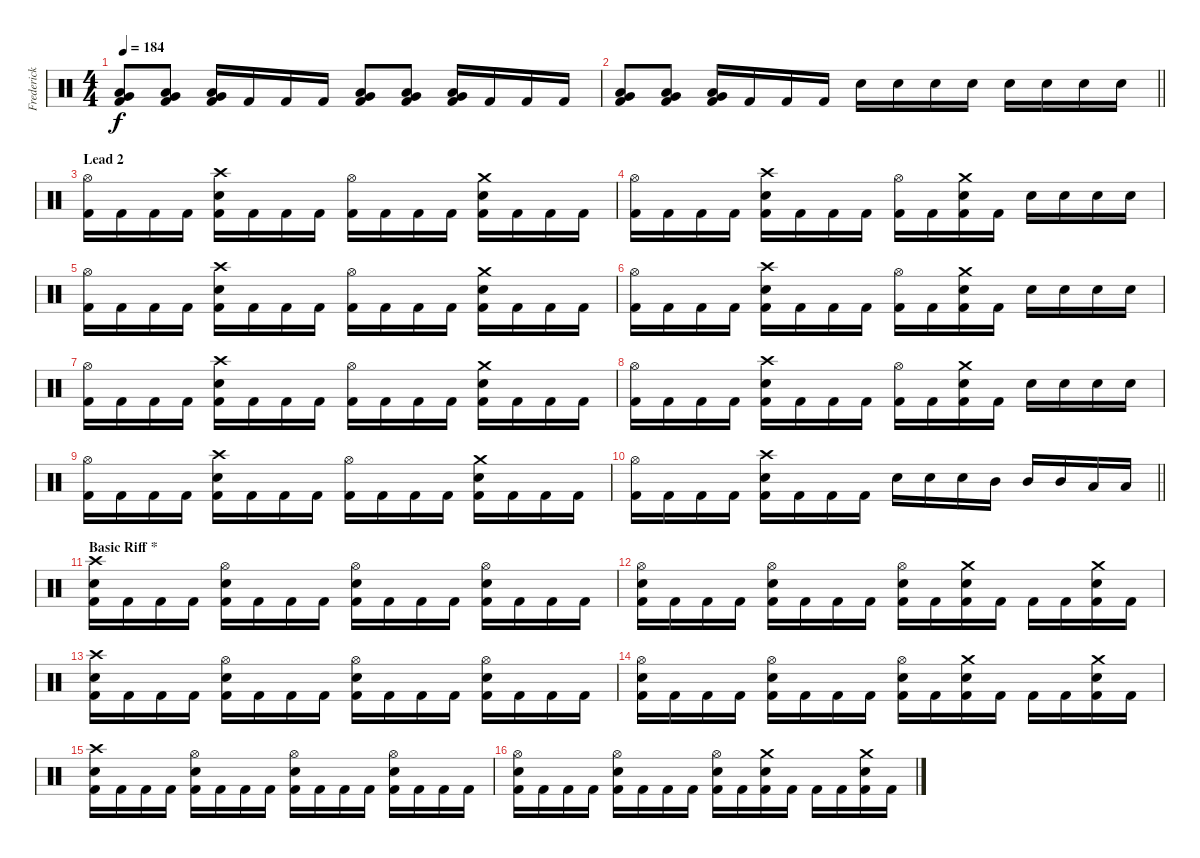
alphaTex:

\track ("Frederick Ehmke" "Frederick ") {instrument percussion}
\staff {score}
\articulation defaults
\ts (4 4)
\tempo 184
\clef neutral
\ks c
("Kick (hit) 2" "Low Tom (hit)" "Very Low Tom (hit)").8{dy f} ("Kick (hit) 2" "Low Tom (hit)" "Very Low Tom (hit)").8 ("Kick (hit) 2" "Low Floor Tom (hit)" "Very Low Tom (hit)").16 "Kick (hit) 2".16 "Kick (hit) 2".16 "Kick (hit) 2".16 ("Kick (hit) 2" "Low Tom (hit)" "Very Low Tom (hit)").8 ("Kick (hit) 2" "Low Tom (hit)" "Very Low Tom (hit)").8 ("Kick (hit) 2" "Very Low Tom (hit)" "Low Floor Tom (hit)").16 "Kick (hit) 2".16 "Kick (hit) 2".16 "Kick (hit) 2".16 |
\barLineRight lightlight
("Kick (hit) 2" "Low Tom (hit)" "Very Low Tom (hit)").8 ("Kick (hit) 2" "Low Tom (hit)" "Very Low Tom (hit)").8 ("Kick (hit) 2" "Low Floor Tom (hit)" "Very Low Tom (hit)").16 "Kick (hit) 2".16 "Kick (hit) 2".16 "Kick (hit) 2".16 "Electric Snare (hit)".16 "Electric Snare (hit)".16 "Electric Snare (hit)".16 "Electric Snare (hit)".16 "Electric Snare (hit)".16 "Electric Snare (hit)".16 "Electric Snare (hit)".16 "Electric Snare (hit)".16 |
\section ("" "Lead 2")
("Kick (hit) 2" "Hi-Hat (open)").16 "Kick (hit) 2".16 "Kick (hit) 2".16 "Kick (hit) 2".16 ("Electric Snare (hit)" "Kick (hit) 2" "Crash high (hit)").16 "Kick (hit) 2".16 "Kick (hit) 2".16 "Kick (hit) 2".16 ("Kick (hit) 2" "Hi-Hat (open)").16 "Kick (hit) 2".16 "Kick (hit) 2".16 "Kick (hit) 2".16 ("Electric Snare (hit)" "Kick (hit) 2" "Crash medium (hit)").16 "Kick (hit) 2".16 "Kick (hit) 2".16 "Kick (hit) 2".16 |
("Kick (hit) 2" "Hi-Hat (open)").16 "Kick (hit) 2".16 "Kick (hit) 2".16 "Kick (hit) 2".16 ("Electric Snare (hit)" "Kick (hit) 2" "Crash high (hit)").16 "Kick (hit) 2".16 "Kick (hit) 2".16 "Kick (hit) 2".16 ("Kick (hit) 2" "Hi-Hat (open)").16 "Kick (hit) 2".16 ("Electric Snare (hit)" "Kick (hit) 2" "Crash medium (hit)").16 "Kick (hit) 2".16 "Electric Snare (hit)".16 "Electric Snare (hit)".16 "Electric Snare (hit)".16 "Electric Snare (hit)".16 |
("Kick (hit) 2" "Hi-Hat (open)").16 "Kick (hit) 2".16 "Kick (hit) 2".16 "Kick (hit) 2".16 ("Electric Snare (hit)" "Kick (hit) 2" "Crash high (hit)").16 "Kick (hit) 2".16 "Kick (hit) 2".16 "Kick (hit) 2".16 ("Kick (hit) 2" "Hi-Hat (open)").16 "Kick (hit) 2".16 "Kick (hit) 2".16 "Kick (hit) 2".16 ("Electric Snare (hit)" "Kick (hit) 2" "Crash medium (hit)").16 "Kick (hit) 2".16 "Kick (hit) 2".16 "Kick (hit) 2".16 |
("Kick (hit) 2" "Hi-Hat (open)").16 "Kick (hit) 2".16 "Kick (hit) 2".16 "Kick (hit) 2".16 ("Electric Snare (hit)" "Kick (hit) 2" "Crash high (hit)").16 "Kick (hit) 2".16 "Kick (hit) 2".16 "Kick (hit) 2".16 ("Kick (hit) 2" "Hi-Hat (open)").16 "Kick (hit) 2".16 ("Electric Snare (hit)" "Kick (hit) 2" "Crash medium (hit)").16 "Kick (hit) 2".16 "Electric Snare (hit)".16 "Electric Snare (hit)".16 "Electric Snare (hit)".16 "Electric Snare (hit)".16 |
("Kick (hit) 2" "Hi-Hat (open)").16 "Kick (hit) 2".16 "Kick (hit) 2".16 "Kick (hit) 2".16 ("Electric Snare (hit)" "Kick (hit) 2" "Crash high (hit)").16 "Kick (hit) 2".16 "Kick (hit) 2".16 "Kick (hit) 2".16 ("Kick (hit) 2" "Hi-Hat (open)").16 "Kick (hit) 2".16 "Kick (hit) 2".16 "Kick (hit) 2".16 ("Electric Snare (hit)" "Kick (hit) 2" "Crash medium (hit)").16 "Kick (hit) 2".16 "Kick (hit) 2".16 "Kick (hit) 2".16 |
("Kick (hit) 2" "Hi-Hat (open)").16 "Kick (hit) 2".16 "Kick (hit) 2".16 "Kick (hit) 2".16 ("Electric Snare (hit)" "Kick (hit) 2" "Crash high (hit)").16 "Kick (hit) 2".16 "Kick (hit) 2".16 "Kick (hit) 2".16 ("Kick (hit) 2" "Hi-Hat (open)").16 "Kick (hit) 2".16 ("Electric Snare (hit)" "Kick (hit) 2" "Crash medium (hit)").16 "Kick (hit) 2".16 "Electric Snare (hit)".16 "Electric Snare (hit)".16 "Electric Snare (hit)".16 "Electric Snare (hit)".16 |
("Kick (hit) 2" "Hi-Hat (open)").16 "Kick (hit) 2".16 "Kick (hit) 2".16 "Kick (hit) 2".16 ("Electric Snare (hit)" "Kick (hit) 2" "Crash high (hit)").16 "Kick (hit) 2".16 "Kick (hit) 2".16 "Kick (hit) 2".16 ("Kick (hit) 2" "Hi-Hat (open)").16 "Kick (hit) 2".16 "Kick (hit) 2".16 "Kick (hit) 2".16 ("Electric Snare (hit)" "Kick (hit) 2" "Crash medium (hit)").16 "Kick (hit) 2".16 "Kick (hit) 2".16 "Kick (hit) 2".16 |
\barLineRight lightlight
("Kick (hit) 2" "Hi-Hat (open)").16 "Kick (hit) 2".16 "Kick (hit) 2".16 "Kick (hit) 2".16 ("Electric Snare (hit)" "Kick (hit) 2" "Crash high (hit)").16 "Kick (hit) 2".16 "Kick (hit) 2".16 "Kick (hit) 2".16 "Electric Snare (hit)".16 "Electric Snare (hit)".16 "Electric Snare (hit)".16 "Mid Tom (hit)".16 "Mid Tom (hit)".16 "Mid Tom (hit)".16 "Low Tom (hit)".16 "Low Tom (hit)".16 |
\section ("" "Basic Riff *")
("Electric Snare (hit)" "Kick (hit) 2" "Crash high (hit)").16 "Kick (hit) 2".16 "Kick (hit) 2".16 "Kick (hit) 2".16 ("Electric Snare (hit)" "Kick (hit) 2" "Hi-Hat (open)").16 "Kick (hit) 2".16 "Kick (hit) 2".16 "Kick (hit) 2".16 ("Electric Snare (hit)" "Kick (hit) 2" "Hi-Hat (open)").16 "Kick (hit) 2".16 "Kick (hit) 2".16 "Kick (hit) 2".16 ("Electric Snare (hit)" "Kick (hit) 2" "Hi-Hat (open)").16 "Kick (hit) 2".16 "Kick (hit) 2".16 "Kick (hit) 2".16 |
("Electric Snare (hit)" "Kick (hit) 2" "Hi-Hat (open)").16 "Kick (hit) 2".16 "Kick (hit) 2".16 "Kick (hit) 2".16 ("Electric Snare (hit)" "Kick (hit) 2" "Hi-Hat (open)").16 "Kick (hit) 2".16 "Kick (hit) 2".16 "Kick (hit) 2".16 ("Electric Snare (hit)" "Kick (hit) 2" "Hi-Hat (open)").16 "Kick (hit) 2".16 ("Electric Snare (hit)" "Kick (hit) 2" "Crash medium (hit)").16 "Kick (hit) 2".16 "Kick (hit) 2".16 "Kick (hit) 2".16 ("Electric Snare (hit)" "Kick (hit) 2" "Crash medium (hit)").16 "Kick (hit) 2".16 |
("Electric Snare (hit)" "Kick (hit) 2" "Crash high (hit)").16 "Kick (hit) 2".16 "Kick (hit) 2".16 "Kick (hit) 2".16 ("Electric Snare (hit)" "Kick (hit) 2" "Hi-Hat (open)").16 "Kick (hit) 2".16 "Kick (hit) 2".16 "Kick (hit) 2".16 ("Electric Snare (hit)" "Kick (hit) 2" "Hi-Hat (open)").16 "Kick (hit) 2".16 "Kick (hit) 2".16 "Kick (hit) 2".16 ("Electric Snare (hit)" "Kick (hit) 2" "Hi-Hat (open)").16 "Kick (hit) 2".16 "Kick (hit) 2".16 "Kick (hit) 2".16 |
("Electric Snare (hit)" "Kick (hit) 2" "Hi-Hat (open)").16 "Kick (hit) 2".16 "Kick (hit) 2".16 "Kick (hit) 2".16 ("Electric Snare (hit)" "Kick (hit) 2" "Hi-Hat (open)").16 "Kick (hit) 2".16 "Kick (hit) 2".16 "Kick (hit) 2".16 ("Electric Snare (hit)" "Kick (hit) 2" "Hi-Hat (open)").16 "Kick (hit) 2".16 ("Electric Snare (hit)" "Kick (hit) 2" "Crash medium (hit)").16 "Kick (hit) 2".16 "Kick (hit) 2".16 "Kick (hit) 2".16 ("Electric Snare (hit)" "Kick (hit) 2" "Crash medium (hit)").16 "Kick (hit) 2".16 |
("Electric Snare (hit)" "Kick (hit) 2" "Crash high (hit)").16 "Kick (hit) 2".16 "Kick (hit) 2".16 "Kick (hit) 2".16 ("Electric Snare (hit)" "Kick (hit) 2" "Hi-Hat (open)").16 "Kick (hit) 2".16 "Kick (hit) 2".16 "Kick (hit) 2".16 ("Electric Snare (hit)" "Kick (hit) 2" "Hi-Hat (open)").16 "Kick (hit) 2".16 "Kick (hit) 2".16 "Kick (hit) 2".16 ("Electric Snare (hit)" "Kick (hit) 2" "Hi-Hat (open)").16 "Kick (hit) 2".16 "Kick (hit) 2".16 "Kick (hit) 2".16 |
("Electric Snare (hit)" "Kick (hit) 2" "Hi-Hat (open)").16 "Kick (hit) 2".16 "Kick (hit) 2".16 "Kick (hit) 2".16 ("Electric Snare (hit)" "Kick (hit) 2" "Hi-Hat (open)").16 "Kick (hit) 2".16 "Kick (hit) 2".16 "Kick (hit) 2".16 ("Electric Snare (hit)" "Kick (hit) 2" "Hi-Hat (open)").16 "Kick (hit) 2".16 ("Electric Snare (hit)" "Kick (hit) 2" "Crash medium (hit)").16 "Kick (hit) 2".16 "Kick (hit) 2".16 "Kick (hit) 2".16 ("Electric Snare (hit)" "Kick (hit) 2" "Crash medium (hit)").16 "Kick (hit) 2".16
